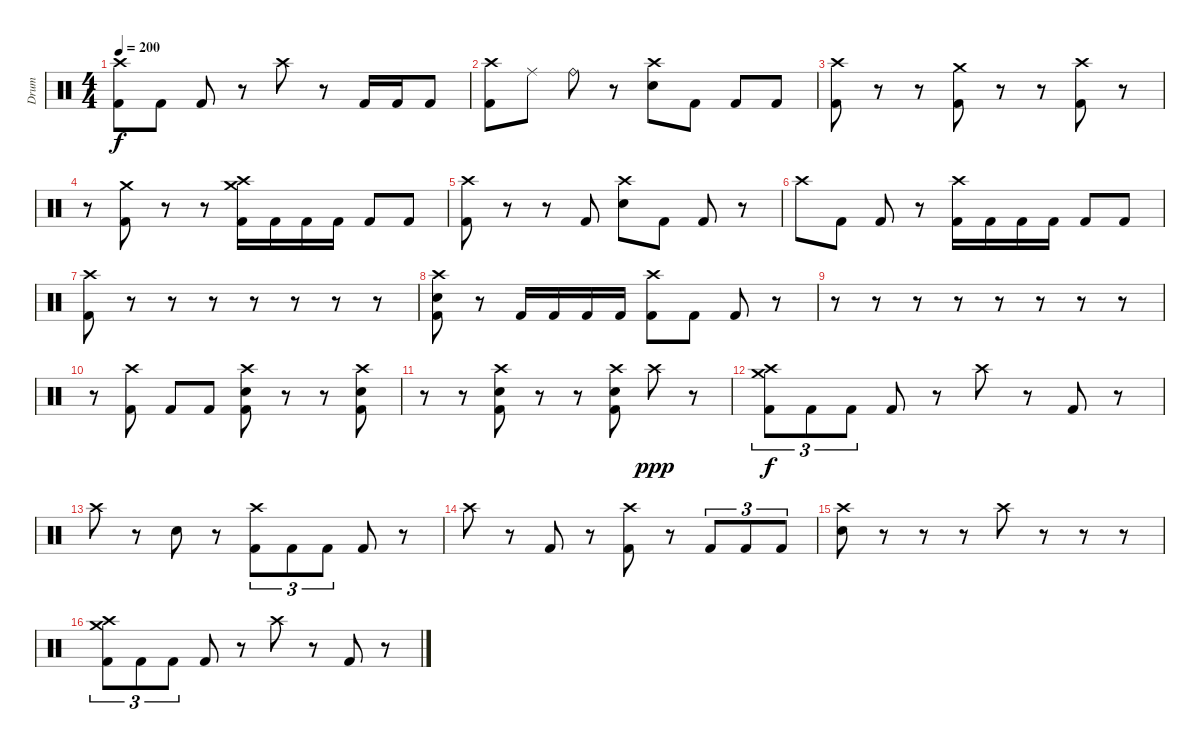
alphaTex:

\track ("Drum" "Drum") {instrument percussion}
\staff {score}
\articulation defaults
\ts (4 4)
\tempo 200
\clef neutral
\ks c
("Crash high (hit)" "Kick (hit) 2").8{dy f} "Kick (hit) 2".8 "Kick (hit) 2".8 r.8 "Crash high (hit)".8 r.8 "Kick (hit) 2".16 "Kick (hit) 2".16 "Kick (hit) 2".8 |
("Crash high (hit)" "Kick (hit) 2").8 "Ride (middle)".8 "Ride (bell)".8 r.8 ("Crash high (hit)" "Electric Snare (hit)").8 "Kick (hit) 2".8 "Kick (hit) 2".8 "Kick (hit) 2".8 |
("Crash high (hit)" "Kick (hit) 2").8 r.8 r.8 ("Crash medium (hit)" "Kick (hit) 2").8 r.8 r.8 ("Crash high (hit)" "Kick (hit) 2").8 r.8 |
r.8 ("Crash medium (hit)" "Kick (hit) 2").8 r.8 r.8 ("Crash medium (hit)" "Crash high (hit)" "Kick (hit) 2").16 "Kick (hit) 2".16 "Kick (hit) 2".16 "Kick (hit) 2".16 "Kick (hit) 2".8 "Kick (hit) 2".8 |
("Crash high (hit)" "Kick (hit) 2").8 r.8 r.8 "Kick (hit) 2".8 ("Crash high (hit)" "Electric Snare (hit)").8 "Kick (hit) 2".8 "Kick (hit) 2".8 r.8 |
"Crash high (hit)".8 "Kick (hit) 2".8 "Kick (hit) 2".8 r.8 ("Crash high (hit)" "Kick (hit) 2").16 "Kick (hit) 2".16 "Kick (hit) 2".16 "Kick (hit) 2".16 "Kick (hit) 2".8 "Kick (hit) 2".8 |
("Crash high (hit)" "Kick (hit) 2").8 r.8 r.8 r.8 r.8 r.8 r.8 r.8 |
("Crash high (hit)" "Electric Snare (hit)" "Kick (hit) 2").8 r.8 "Kick (hit) 2".16 "Kick (hit) 2".16 "Kick (hit) 2".16 "Kick (hit) 2".16 ("Crash high (hit)" "Kick (hit) 2").8 "Kick (hit) 2".8 "Kick (hit) 2".8 r.8 |
r.8 r.8 r.8 r.8 r.8 r.8 r.8 r.8 |
r.8 ("Crash high (hit)" "Kick (hit) 2").8 "Kick (hit) 2".8 "Kick (hit) 2".8 ("Crash high (hit)" "Electric Snare (hit)" "Kick (hit) 2").8 r.8 r.8 ("Crash high (hit)" "Electric Snare (hit)" "Kick (hit) 2").8 |
r.8 r.8 ("Crash high (hit)" "Electric Snare (hit)" "Kick (hit) 2").8 r.8 r.8 ("Crash high (hit)" "Electric Snare (hit)" "Kick (hit) 2").8 "Crash high (hit)".8{dy ppp} r.8 |
("Crash medium (hit)" "Crash high (hit)" "Kick (hit) 2").8{tu (3 2) dy f} "Kick (hit) 2".8{tu (3 2)} "Kick (hit) 2".8{tu (3 2)} "Kick (hit) 2".8 r.8 "Crash high (hit)".8 r.8 "Kick (hit) 2".8 r.8 |
"Crash high (hit)".8 r.8 "Electric Snare (hit)".8 r.8 ("Crash high (hit)" "Kick (hit) 2").8{tu (3 2)} "Kick (hit) 2".8{tu (3 2)} "Kick (hit) 2".8{tu (3 2)} "Kick (hit) 2".8 r.8 |
"Crash high (hit)".8 r.8 "Kick (hit) 2".8 r.8 ("Crash high (hit)" "Kick (hit) 2").8 r.8 "Kick (hit) 2".8{tu (3 2)} "Kick (hit) 2".8{tu (3 2)} "Kick (hit) 2".8{tu (3 2)} |
("Crash high (hit)" "Electric Snare (hit)").8 r.8 r.8 r.8 "Crash high (hit)".8 r.8 r.8 r.8 |
("Crash medium (hit)" "Crash high (hit)" "Kick (hit) 2").8{tu (3 2)} "Kick (hit) 2".8{tu (3 2)} "Kick (hit) 2".8{tu (3 2)} "Kick (hit) 2".8 r.8 "Crash high (hit)".8 r.8 "Kick (hit) 2".8 r.8
